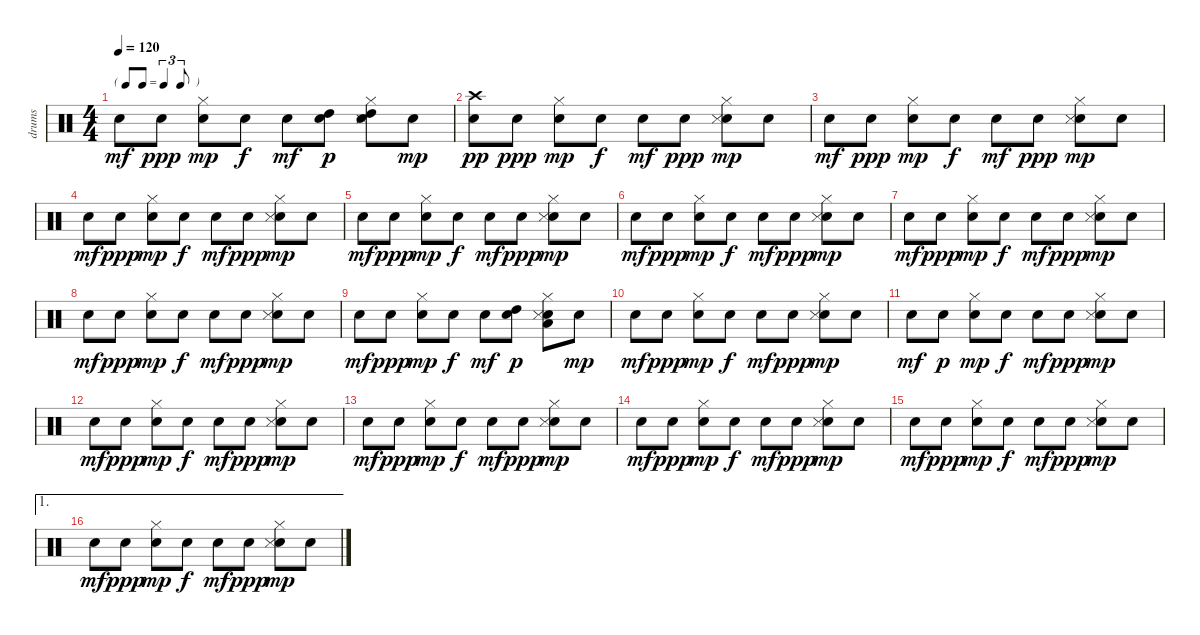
\track ("drums" "drums") {instrument percussion}
\staff {score}
\articulation defaults
\ts (4 4)
\tf triplet8th
\tempo 120
\clef neutral
\ks c "Snare (hit) 2".8{dy mf} "Snare (hit) 2".8{dy ppp}
("Snare (hit) 2" "Hi-Hat (closed)").8{dy mp} "Snare (hit) 2".8{dy f} "Snare (hit) 2".8{dy mf} ("Snare (hit) 2" "High Tom (hit)").8{dy p} ("Snare (hit) 2" "Hi-Hat (closed)" "Snare (side stick) 3" "High Tom (hit)").8 "Snare (hit) 2".8{dy mp} |
("Snare (hit) 2" "Crash high (hit)").8{dy pp} "Snare (hit) 2".8{dy ppp} ("Snare (hit) 2" "Hi-Hat (closed)").8{dy mp} "Snare (hit) 2".8{dy f} "Snare (hit) 2".8{dy mf} "Snare (hit) 2".8{dy ppp} ("Snare (hit) 2" "Hi-Hat (closed)" "Snare (side stick) 3").8{dy mp} "Snare (hit) 2".8 |
"Snare (hit) 2".8{dy mf} "Snare (hit) 2".8{dy ppp} ("Snare (hit) 2" "Hi-Hat (closed)").8{dy mp} "Snare (hit) 2".8{dy f} "Snare (hit) 2".8{dy mf} "Snare (hit) 2".8{dy ppp} ("Snare (hit) 2" "Hi-Hat (closed)" "Snare (side stick) 3").8{dy mp} "Snare (hit) 2".8 |
"Snare (hit) 2".8{dy mf} "Snare (hit) 2".8{dy ppp} ("Snare (hit) 2" "Hi-Hat (closed)").8{dy mp} "Snare (hit) 2".8{dy f} "Snare (hit) 2".8{dy mf} "Snare (hit) 2".8{dy ppp} ("Snare (hit) 2" "Hi-Hat (closed)" "Snare (side stick) 3").8{dy mp} "Snare (hit) 2".8 |
"Snare (hit) 2".8{dy mf} "Snare (hit) 2".8{dy ppp} ("Snare (hit) 2" "Hi-Hat (closed)").8{dy mp} "Snare (hit) 2".8{dy f} "Snare (hit) 2".8{dy mf} "Snare (hit) 2".8{dy ppp} ("Snare (hit) 2" "Hi-Hat (closed)" "Snare (side stick) 3").8{dy mp} "Snare (hit) 2".8 |
"Snare (hit) 2".8{dy mf} "Snare (hit) 2".8{dy ppp} ("Snare (hit) 2" "Hi-Hat (closed)").8{dy mp} "Snare (hit) 2".8{dy f} "Snare (hit) 2".8{dy mf} "Snare (hit) 2".8{dy ppp} ("Snare (hit) 2" "Hi-Hat (closed)" "Snare (side stick) 3").8{dy mp} "Snare (hit) 2".8 |
"Snare (hit) 2".8{dy mf} "Snare (hit) 2".8{dy ppp} ("Snare (hit) 2" "Hi-Hat (closed)").8{dy mp} "Snare (hit) 2".8{dy f} "Snare (hit) 2".8{dy mf} "Snare (hit) 2".8{dy ppp} ("Snare (hit) 2" "Hi-Hat (closed)" "Snare (side stick) 3").8{dy mp} "Snare (hit) 2".8 |
"Snare (hit) 2".8{dy mf} "Snare (hit) 2".8{dy ppp} ("Snare (hit) 2" "Hi-Hat (closed)").8{dy mp} "Snare (hit) 2".8{dy f} "Snare (hit) 2".8{dy mf} "Snare (hit) 2".8{dy ppp} ("Snare (hit) 2" "Hi-Hat (closed)" "Snare (side stick) 3").8{dy mp} "Snare (hit) 2".8 |
"Snare (hit) 2".8{dy mf} "Snare (hit) 2".8{dy ppp} ("Snare (hit) 2" "Hi-Hat (closed)").8{dy mp} "Snare (hit) 2".8{dy f} "Snare (hit) 2".8{dy mf} ("Snare (hit) 2" "High Tom (hit)").8{dy p} ("Snare (hit) 2" "Hi-Hat (closed)" "Snare (side stick) 3" "Low Tom (hit)").8 "Snare (hit) 2".8{dy mp} |
"Snare (hit) 2".8{dy mf} "Snare (hit) 2".8{dy ppp} ("Snare (hit) 2" "Hi-Hat (closed)").8{dy mp} "Snare (hit) 2".8{dy f} "Snare (hit) 2".8{dy mf} "Snare (hit) 2".8{dy ppp} ("Snare (hit) 2" "Hi-Hat (closed)" "Snare (side stick) 3").8{dy mp} "Snare (hit) 2".8 |
"Snare (hit) 2".8{dy mf} "Snare (hit) 2".8{dy p} ("Snare (hit) 2" "Hi-Hat (closed)").8{dy mp} "Snare (hit) 2".8{dy f} "Snare (hit) 2".8{dy mf} "Snare (hit) 2".8{dy ppp} ("Snare (hit) 2" "Hi-Hat (closed)" "Snare (side stick) 3").8{dy mp} "Snare (hit) 2".8 |
"Snare (hit) 2".8{dy mf} "Snare (hit) 2".8{dy ppp} ("Snare (hit) 2" "Hi-Hat (closed)").8{dy mp} "Snare (hit) 2".8{dy f} "Snare (hit) 2".8{dy mf} "Snare (hit) 2".8{dy ppp} ("Snare (hit) 2" "Hi-Hat (closed)" "Snare (side stick) 3").8{dy mp} "Snare (hit) 2".8 |
"Snare (hit) 2".8{dy mf} "Snare (hit) 2".8{dy ppp} ("Snare (hit) 2" "Hi-Hat (closed)").8{dy mp} "Snare (hit) 2".8{dy f} "Snare (hit) 2".8{dy mf} "Snare (hit) 2".8{dy ppp} ("Snare (hit) 2" "Hi-Hat (closed)" "Snare (side stick) 3").8{dy mp} "Snare (hit) 2".8 |
"Snare (hit) 2".8{dy mf} "Snare (hit) 2".8{dy ppp} ("Snare (hit) 2" "Hi-Hat (closed)").8{dy mp} "Snare (hit) 2".8{dy f} "Snare (hit) 2".8{dy mf} "Snare (hit) 2".8{dy ppp} ("Snare (hit) 2" "Hi-Hat (closed)" "Snare (side stick) 3").8{dy mp} "Snare (hit) 2".8 |
"Snare (hit) 2".8{dy mf} "Snare (hit) 2".8{dy ppp} ("Snare (hit) 2" "Hi-Hat (closed)").8{dy mp} "Snare (hit) 2".8{dy f} "Snare (hit) 2".8{dy mf} "Snare (hit) 2".8{dy ppp} ("Snare (hit) 2" "Hi-Hat (closed)" "Snare (side stick) 3").8{dy mp} "Snare (hit) 2".8 |
\ae 1 "Snare (hit) 2".8{dy mf} "Snare (hit) 2".8{dy ppp}
("Snare (hit) 2" "Hi-Hat (closed)").8{dy mp} "Snare (hit) 2".8{dy f} "Snare (hit) 2".8{dy mf} "Snare (hit) 2".8{dy ppp} ("Snare (hit) 2" "Hi-Hat (closed)" "Snare (side stick) 3").8{dy mp} "Snare (hit) 2".8
